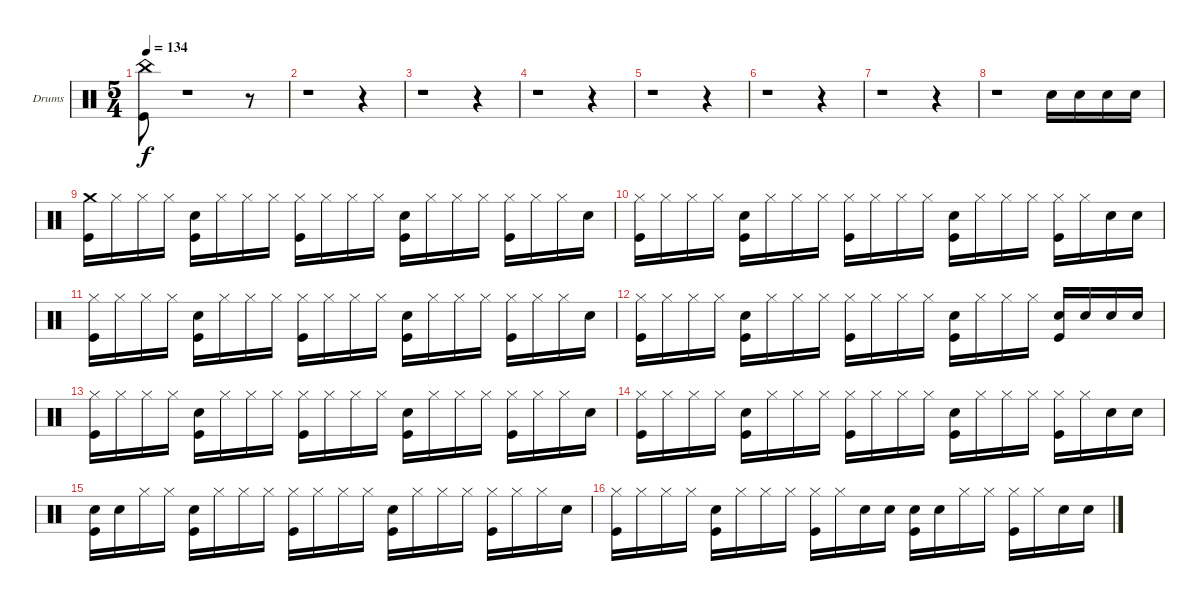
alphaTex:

\bracketExtendMode groupsimilarinstruments
\firstSystemTrackNameOrientation horizontal
\otherSystemsTrackNameOrientation horizontal
\track ("Drumkit" "Drums") {instrument percussion}
\staff {score}
\articulation defaults
\ts (5 4)
\tempo 134
\clef neutral
\ks c
("Kick (hit)" "China (hit)").8{dy f} r.1 r.8 |
r.1 r.4 |
r.1 r.4 |
r.1 r.4 |
r.1 r.4 |
r.1 r.4 |
r.1 r.4 |
r.1 "Snare (hit) 2".16 "Snare (hit) 2".16 "Snare (hit) 2".16 "Snare (hit) 2".16 |
("Crash medium (hit)" "Kick (hit)").16 "Hi-Hat (closed)".16 "Hi-Hat (closed)".16 "Hi-Hat (closed)".16 ("Snare (hit) 2" "Kick (hit)").16 "Hi-Hat (closed)".16 "Hi-Hat (closed)".16 "Hi-Hat (closed)".16 ("Kick (hit)" "Hi-Hat (closed)").16 "Hi-Hat (closed)".16 "Hi-Hat (closed)".16 "Hi-Hat (closed)".16 ("Snare (hit) 2" "Kick (hit)").16 "Hi-Hat (closed)".16 "Hi-Hat (closed)".16 "Hi-Hat (closed)".16 ("Kick (hit)" "Hi-Hat (closed)").16 "Hi-Hat (closed)".16 "Hi-Hat (closed)".16 "Snare (hit) 2".16 |
("Hi-Hat (closed)" "Kick (hit)").16 "Hi-Hat (closed)".16 "Hi-Hat (closed)".16 "Hi-Hat (closed)".16 ("Snare (hit) 2" "Kick (hit)").16 "Hi-Hat (closed)".16 "Hi-Hat (closed)".16 "Hi-Hat (closed)".16 ("Kick (hit)" "Hi-Hat (closed)").16 "Hi-Hat (closed)".16 "Hi-Hat (closed)".16 "Hi-Hat (closed)".16 ("Snare (hit) 2" "Kick (hit)").16 "Hi-Hat (closed)".16 "Hi-Hat (closed)".16 "Hi-Hat (closed)".16 ("Kick (hit)" "Hi-Hat (closed)").16 "Hi-Hat (closed)".16 "Snare (hit) 2".16 "Snare (hit) 2".16 |
("Kick (hit)" "Hi-Hat (closed)").16 "Hi-Hat (closed)".16 "Hi-Hat (closed)".16 "Hi-Hat (closed)".16 ("Snare (hit) 2" "Kick (hit)").16 "Hi-Hat (closed)".16 "Hi-Hat (closed)".16 "Hi-Hat (closed)".16 ("Kick (hit)" "Hi-Hat (closed)").16 "Hi-Hat (closed)".16 "Hi-Hat (closed)".16 "Hi-Hat (closed)".16 ("Snare (hit) 2" "Kick (hit)").16 "Hi-Hat (closed)".16 "Hi-Hat (closed)".16 "Hi-Hat (closed)".16 ("Kick (hit)" "Hi-Hat (closed)").16 "Hi-Hat (closed)".16 "Hi-Hat (closed)".16 "Snare (hit) 2".16 |
("Kick (hit)" "Hi-Hat (closed)").16 "Hi-Hat (closed)".16 "Hi-Hat (closed)".16 "Hi-Hat (closed)".16 ("Snare (hit) 2" "Kick (hit)").16 "Hi-Hat (closed)".16 "Hi-Hat (closed)".16 "Hi-Hat (closed)".16 ("Kick (hit)" "Hi-Hat (closed)").16 "Hi-Hat (closed)".16 "Hi-Hat (closed)".16 "Hi-Hat (closed)".16 ("Snare (hit) 2" "Kick (hit)").16 "Hi-Hat (closed)".16 "Hi-Hat (closed)".16 "Hi-Hat (closed)".16 ("Snare (hit) 2" "Kick (hit)").16 "Snare (hit) 2".16 "Snare (hit) 2".16 "Snare (hit) 2".16 |
("Kick (hit)" "Hi-Hat (closed)").16 "Hi-Hat (closed)".16 "Hi-Hat (closed)".16 "Hi-Hat (closed)".16 ("Snare (hit) 2" "Kick (hit)").16 "Hi-Hat (closed)".16 "Hi-Hat (closed)".16 "Hi-Hat (closed)".16 ("Hi-Hat (closed)" "Kick (hit)").16 "Hi-Hat (closed)".16 "Hi-Hat (closed)".16 "Hi-Hat (closed)".16 ("Snare (hit) 2" "Kick (hit)").16 "Hi-Hat (closed)".16 "Hi-Hat (closed)".16 "Hi-Hat (closed)".16 ("Hi-Hat (closed)" "Kick (hit)").16 "Hi-Hat (closed)".16 "Hi-Hat (closed)".16 "Snare (hit) 2".16 |
("Kick (hit)" "Hi-Hat (closed)").16 "Hi-Hat (closed)".16 "Hi-Hat (closed)".16 "Hi-Hat (closed)".16 ("Snare (hit) 2" "Kick (hit)").16 "Hi-Hat (closed)".16 "Hi-Hat (closed)".16 "Hi-Hat (closed)".16 ("Hi-Hat (closed)" "Kick (hit)").16 "Hi-Hat (closed)".16 "Hi-Hat (closed)".16 "Hi-Hat (closed)".16 ("Snare (hit) 2" "Kick (hit)").16 "Hi-Hat (closed)".16 "Hi-Hat (closed)".16 "Hi-Hat (closed)".16 ("Hi-Hat (closed)" "Kick (hit)").16 "Hi-Hat (closed)".16 "Snare (hit) 2".16 "Snare (hit) 2".16 |
("Snare (hit) 2" "Kick (hit)").16 "Snare (hit) 2".16 "Hi-Hat (closed)".16 "Hi-Hat (closed)".16 ("Snare (hit) 2" "Kick (hit)").16 "Hi-Hat (closed)".16 "Hi-Hat (closed)".16 "Hi-Hat (closed)".16 ("Kick (hit)" "Hi-Hat (closed)").16 "Hi-Hat (closed)".16 "Hi-Hat (closed)".16 "Hi-Hat (closed)".16 ("Snare (hit) 2" "Kick (hit)").16 "Hi-Hat (closed)".16 "Hi-Hat (closed)".16 "Hi-Hat (closed)".16 ("Hi-Hat (closed)" "Kick (hit)").16 "Hi-Hat (closed)".16 "Hi-Hat (closed)".16 "Snare (hit) 2".16 |
("Hi-Hat (closed)" "Kick (hit)").16 "Hi-Hat (closed)".16 "Hi-Hat (closed)".16 "Hi-Hat (closed)".16 ("Snare (hit) 2" "Kick (hit)").16 "Hi-Hat (closed)".16 "Hi-Hat (closed)".16 "Hi-Hat (closed)".16 ("Hi-Hat (closed)" "Kick (hit)").16 "Hi-Hat (closed)".16 "Snare (hit) 2".16 "Snare (hit) 2".16 ("Snare (hit) 2" "Kick (hit)").16 "Snare (hit) 2".16 "Hi-Hat (closed)".16 "Hi-Hat (closed)".16 ("Kick (hit)" "Hi-Hat (closed)").16 "Hi-Hat (closed)".16 "Snare (hit) 2".16 "Snare (hit) 2".16
